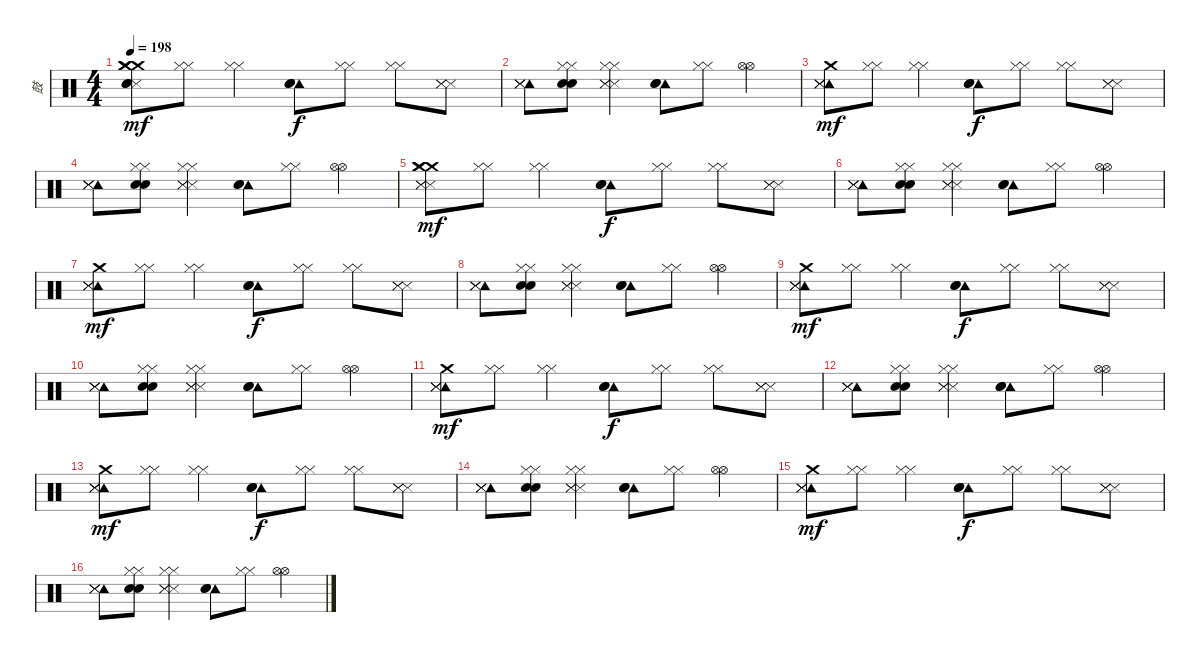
\track ("鼓" "鼓") {instrument percussion}
\staff {score}
\articulation defaults
\ts (4 4)
\tempo 198
\clef neutral
\ks c
("Crash medium (hit)" "Crash medium (hit)" "Crash medium (hit)" "Metronome (hit)" "Metronome (bell)" "Metronome (bell)").8{dy mf} ("Hi-Hat (closed)" "Hi-Hat (closed)").8 ("Hi-Hat (closed)" "Hi-Hat (closed)").4 ("Tambourine (hit)" "Metronome (bell)" "Metronome (bell)").8{dy f} ("Hi-Hat (closed)" "Hi-Hat (closed)").8 ("Hi-Hat (closed)" "Hi-Hat (closed)").8 ("Metronome (hit)" "Metronome (hit)" "Metronome (hit)").8 |
("Tambourine (hit)" "Metronome (hit)" "Metronome (hit)" "Metronome (hit)").8 ("Hi-Hat (closed)" "Hi-Hat (closed)" "Metronome (bell)" "Metronome (bell)").8 ("Hi-Hat (closed)" "Hi-Hat (closed)" "Metronome (hit)" "Metronome (hit)" "Metronome (hit)").4 ("Tambourine (hit)" "Metronome (bell)" "Metronome (bell)").8 ("Hi-Hat (closed)" "Hi-Hat (closed)").8 ("Hi-Hat (open)" "Hi-Hat (open)").4 |
("Tambourine (hit)" "Crash medium (hit)" "Metronome (hit)" "Metronome (hit)" "Metronome (hit)").8{dy mf} ("Hi-Hat (closed)" "Hi-Hat (closed)").8 ("Hi-Hat (closed)" "Hi-Hat (closed)").4 ("Tambourine (hit)" "Metronome (bell)" "Metronome (bell)").8{dy f} ("Hi-Hat (closed)" "Hi-Hat (closed)").8 ("Hi-Hat (closed)" "Hi-Hat (closed)").8 ("Metronome (hit)" "Metronome (hit)" "Metronome (hit)").8 |
("Tambourine (hit)" "Metronome (hit)" "Metronome (hit)" "Metronome (hit)").8 ("Hi-Hat (closed)" "Hi-Hat (closed)" "Metronome (bell)" "Metronome (bell)").8 ("Hi-Hat (closed)" "Hi-Hat (closed)" "Metronome (hit)" "Metronome (hit)" "Metronome (hit)").4 ("Tambourine (hit)" "Metronome (bell)" "Metronome (bell)").8 ("Hi-Hat (closed)" "Hi-Hat (closed)").8 ("Hi-Hat (open)" "Hi-Hat (open)").4 |
("Crash medium (hit)" "Crash medium (hit)" "Metronome (hit)" "Metronome (hit)" "Metronome (hit)" "Crash medium (hit)").8{dy mf} ("Hi-Hat (closed)" "Hi-Hat (closed)").8 ("Hi-Hat (closed)" "Hi-Hat (closed)").4 ("Tambourine (hit)" "Metronome (bell)" "Metronome (bell)").8{dy f} ("Hi-Hat (closed)" "Hi-Hat (closed)").8 ("Hi-Hat (closed)" "Hi-Hat (closed)").8 ("Metronome (hit)" "Metronome (hit)" "Metronome (hit)").8 |
("Tambourine (hit)" "Metronome (hit)" "Metronome (hit)" "Metronome (hit)").8 ("Hi-Hat (closed)" "Hi-Hat (closed)" "Metronome (bell)" "Metronome (bell)").8 ("Hi-Hat (closed)" "Hi-Hat (closed)" "Metronome (hit)" "Metronome (hit)" "Metronome (hit)").4 ("Tambourine (hit)" "Metronome (bell)" "Metronome (bell)").8 ("Hi-Hat (closed)" "Hi-Hat (closed)").8 ("Hi-Hat (open)" "Hi-Hat (open)").4 |
("Tambourine (hit)" "Crash medium (hit)" "Metronome (hit)" "Metronome (hit)" "Metronome (hit)").8{dy mf} ("Hi-Hat (closed)" "Hi-Hat (closed)").8 ("Hi-Hat (closed)" "Hi-Hat (closed)").4 ("Tambourine (hit)" "Metronome (bell)" "Metronome (bell)").8{dy f} ("Hi-Hat (closed)" "Hi-Hat (closed)").8 ("Hi-Hat (closed)" "Hi-Hat (closed)").8 ("Metronome (hit)" "Metronome (hit)" "Metronome (hit)").8 |
("Tambourine (hit)" "Metronome (hit)" "Metronome (hit)" "Metronome (hit)").8 ("Hi-Hat (closed)" "Hi-Hat (closed)" "Metronome (bell)" "Metronome (bell)").8 ("Hi-Hat (closed)" "Hi-Hat (closed)" "Metronome (hit)" "Metronome (hit)" "Metronome (hit)").4 ("Tambourine (hit)" "Metronome (bell)" "Metronome (bell)").8 ("Hi-Hat (closed)" "Hi-Hat (closed)").8 ("Hi-Hat (open)" "Hi-Hat (open)").4 |
("Tambourine (hit)" "Crash medium (hit)" "Metronome (hit)" "Metronome (hit)" "Metronome (hit)").8{dy mf} ("Hi-Hat (closed)" "Hi-Hat (closed)").8 ("Hi-Hat (closed)" "Hi-Hat (closed)").4 ("Tambourine (hit)" "Metronome (bell)" "Metronome (bell)").8{dy f} ("Hi-Hat (closed)" "Hi-Hat (closed)").8 ("Hi-Hat (closed)" "Hi-Hat (closed)").8 ("Metronome (hit)" "Metronome (hit)" "Metronome (hit)").8 |
("Tambourine (hit)" "Metronome (hit)" "Metronome (hit)" "Metronome (hit)").8 ("Hi-Hat (closed)" "Hi-Hat (closed)" "Metronome (bell)" "Metronome (bell)").8 ("Hi-Hat (closed)" "Hi-Hat (closed)" "Metronome (hit)" "Metronome (hit)" "Metronome (hit)").4 ("Tambourine (hit)" "Metronome (bell)" "Metronome (bell)").8 ("Hi-Hat (closed)" "Hi-Hat (closed)").8 ("Hi-Hat (open)" "Hi-Hat (open)").4 |
("Tambourine (hit)" "Crash medium (hit)" "Metronome (hit)" "Metronome (hit)" "Metronome (hit)").8{dy mf} ("Hi-Hat (closed)" "Hi-Hat (closed)").8 ("Hi-Hat (closed)" "Hi-Hat (closed)").4 ("Tambourine (hit)" "Metronome (bell)" "Metronome (bell)").8{dy f} ("Hi-Hat (closed)" "Hi-Hat (closed)").8 ("Hi-Hat (closed)" "Hi-Hat (closed)").8 ("Metronome (hit)" "Metronome (hit)" "Metronome (hit)").8 |
("Tambourine (hit)" "Metronome (hit)" "Metronome (hit)" "Metronome (hit)").8 ("Hi-Hat (closed)" "Hi-Hat (closed)" "Metronome (bell)" "Metronome (bell)").8 ("Hi-Hat (closed)" "Hi-Hat (closed)" "Metronome (hit)" "Metronome (hit)" "Metronome (hit)").4 ("Tambourine (hit)" "Metronome (bell)" "Metronome (bell)").8 ("Hi-Hat (closed)" "Hi-Hat (closed)").8 ("Hi-Hat (open)" "Hi-Hat (open)").4 |
("Tambourine (hit)" "Crash medium (hit)" "Metronome (hit)" "Metronome (hit)" "Metronome (hit)").8{dy mf} ("Hi-Hat (closed)" "Hi-Hat (closed)").8 ("Hi-Hat (closed)" "Hi-Hat (closed)").4 ("Tambourine (hit)" "Metronome (bell)" "Metronome (bell)").8{dy f} ("Hi-Hat (closed)" "Hi-Hat (closed)").8 ("Hi-Hat (closed)" "Hi-Hat (closed)").8 ("Metronome (hit)" "Metronome (hit)" "Metronome (hit)").8 |
("Tambourine (hit)" "Metronome (hit)" "Metronome (hit)" "Metronome (hit)").8 ("Hi-Hat (closed)" "Hi-Hat (closed)" "Metronome (bell)" "Metronome (bell)").8 ("Hi-Hat (closed)" "Hi-Hat (closed)" "Metronome (hit)" "Metronome (hit)" "Metronome (hit)").4 ("Tambourine (hit)" "Metronome (bell)" "Metronome (bell)").8 ("Hi-Hat (closed)" "Hi-Hat (closed)").8 ("Hi-Hat (open)" "Hi-Hat (open)").4 |
("Tambourine (hit)" "Crash medium (hit)" "Metronome (hit)" "Metronome (hit)" "Metronome (hit)").8{dy mf} ("Hi-Hat (closed)" "Hi-Hat (closed)").8 ("Hi-Hat (closed)" "Hi-Hat (closed)").4 ("Tambourine (hit)" "Metronome (bell)" "Metronome (bell)").8{dy f} ("Hi-Hat (closed)" "Hi-Hat (closed)").8 ("Hi-Hat (closed)" "Hi-Hat (closed)").8 ("Metronome (hit)" "Metronome (hit)" "Metronome (hit)").8 |
("Tambourine (hit)" "Metronome (hit)" "Metronome (hit)" "Metronome (hit)").8 ("Hi-Hat (closed)" "Hi-Hat (closed)" "Metronome (bell)" "Metronome (bell)").8 ("Hi-Hat (closed)" "Hi-Hat (closed)" "Metronome (hit)" "Metronome (hit)" "Metronome (hit)").4 ("Tambourine (hit)" "Metronome (bell)" "Metronome (bell)").8 ("Hi-Hat (closed)" "Hi-Hat (closed)").8 ("Hi-Hat (open)" "Hi-Hat (open)").4
